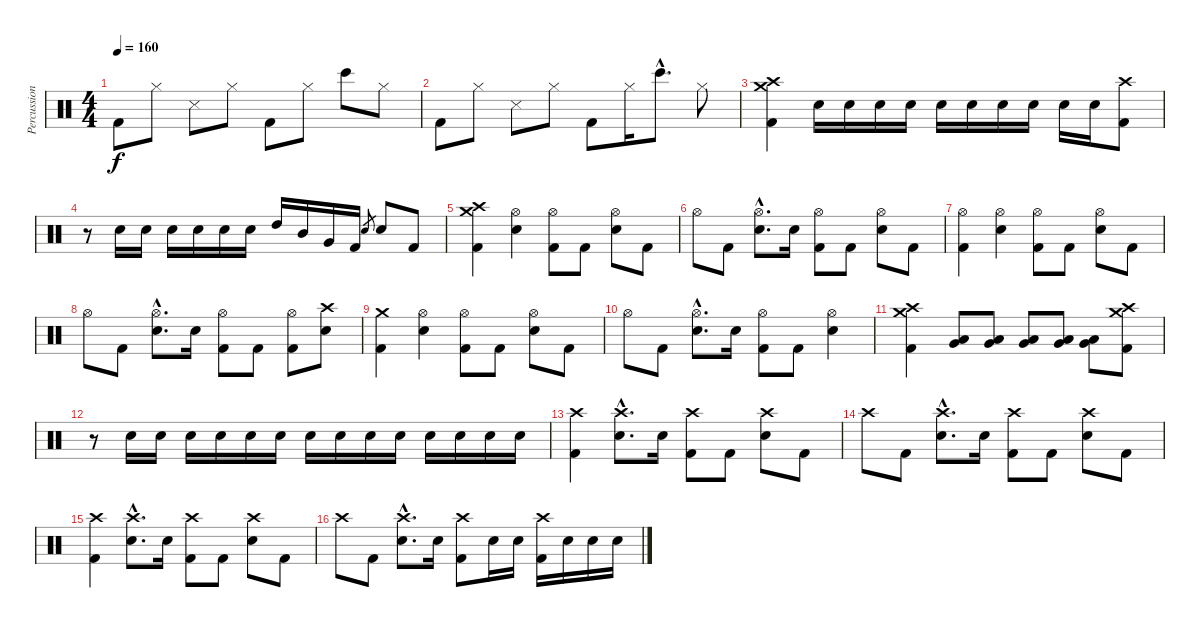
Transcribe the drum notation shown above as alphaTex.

\track ("Percussion" "Percussion") {instrument percussion}
\staff {score}
\articulation defaults
\ts (4 4)
\tempo 160
\clef neutral
\ks c "Kick (hit) 2".8{dy f} "Hi-Hat (closed)".8 "Snare (side stick) 3".8 "Hi-Hat (closed)".8 "Kick (hit) 2".8 "Hi-Hat (closed)".8 "Bongo High (hit)".8 "Hi-Hat (closed)".8
|
"Kick (hit) 2".8 "Hi-Hat (closed)".8 "Snare (side stick) 3".8 "Hi-Hat (closed)".8 "Kick (hit) 2".8 "Hi-Hat (closed)".16 "Bongo High (hit)"{hac}.8{d} "Hi-Hat (closed)".8 |
("Crash high (hit)" "Crash medium (hit)" "Kick (hit) 2").4 "Electric Snare (hit)".16 "Electric Snare (hit)".16 "Electric Snare (hit)".16 "Electric Snare (hit)".16 "Electric Snare (hit)".16 "Electric Snare (hit)".16 "Electric Snare (hit)".16 "Electric Snare (hit)".16 "Electric Snare (hit)".16 "Electric Snare (hit)".16 ("Crash high (hit)" "Kick (hit) 2").8 |
r.8 "Electric Snare (hit)".16 "Electric Snare (hit)".16 "Electric Snare (hit)".16 "Electric Snare (hit)".16 "Electric Snare (hit)".16 "Electric Snare (hit)".16 "High Tom (hit)".16 "Mid Tom (hit)".16 "Very Low Tom (hit)".16 "Kick (hit) 2".16 "Electric Snare (hit)".8{gr} "Electric Snare (hit)".8 "Kick (hit) 2".8 |
("Crash high (hit)" "Crash medium (hit)" "Kick (hit) 2").4 ("Hi-Hat (open)" "Electric Snare (hit)").4 ("Hi-Hat (open)" "Kick (hit) 2").8 "Kick (hit) 2".8 ("Hi-Hat (open)" "Electric Snare (hit)").8 "Kick (hit) 2".8 |
"Hi-Hat (open)".8 "Kick (hit) 2".8 ("Hi-Hat (open)"{hac} "Electric Snare (hit)"{hac}).8{d} "Electric Snare (hit)".16 ("Hi-Hat (open)" "Kick (hit) 2").8 "Kick (hit) 2".8 ("Hi-Hat (open)" "Electric Snare (hit)").8 "Kick (hit) 2".8 |
("Hi-Hat (open)" "Kick (hit) 2").4 ("Hi-Hat (open)" "Electric Snare (hit)").4 ("Hi-Hat (open)" "Kick (hit) 2").8 "Kick (hit) 2".8 ("Hi-Hat (open)" "Electric Snare (hit)").8 "Kick (hit) 2".8 |
"Hi-Hat (open)".8 "Kick (hit) 2".8 ("Hi-Hat (open)"{hac} "Electric Snare (hit)"{hac}).8{d} "Electric Snare (hit)".16 ("Hi-Hat (open)" "Kick (hit) 2").8 "Kick (hit) 2".8 ("Hi-Hat (open)" "Kick (hit) 2").8 ("Crash high (hit)" "Electric Snare (hit)").8 |
("Crash medium (hit)" "Kick (hit) 2").4 ("Hi-Hat (open)" "Electric Snare (hit)").4 ("Hi-Hat (open)" "Kick (hit) 2").8 "Kick (hit) 2".8 ("Hi-Hat (open)" "Electric Snare (hit)").8 "Kick (hit) 2".8 |
"Hi-Hat (open)".8 "Kick (hit) 2".8 ("Hi-Hat (open)"{hac} "Electric Snare (hit)"{hac}).8{d} "Electric Snare (hit)".16 ("Hi-Hat (open)" "Kick (hit) 2").8 "Kick (hit) 2".8 ("Hi-Hat (open)" "Electric Snare (hit)").4 |
("Crash high (hit)" "Crash medium (hit)" "Kick (hit) 2").4 ("Very Low Tom (hit)" "Low Floor Tom (hit)").8 ("Very Low Tom (hit)" "Low Floor Tom (hit)").8 ("Very Low Tom (hit)" "Low Floor Tom (hit)").8 ("Very Low Tom (hit)" "Low Floor Tom (hit)").8 ("Very Low Tom (hit)" "Low Floor Tom (hit)").8 ("Crash high (hit)" "Crash medium (hit)" "Kick (hit) 2").8 |
r.8 "Electric Snare (hit)".16 "Electric Snare (hit)".16 "Electric Snare (hit)".16 "Electric Snare (hit)".16 "Electric Snare (hit)".16 "Electric Snare (hit)".16 "Electric Snare (hit)".16 "Electric Snare (hit)".16 "Electric Snare (hit)".16 "Electric Snare (hit)".16 "Electric Snare (hit)".16 "Electric Snare (hit)".16 "Electric Snare (hit)".16 "Electric Snare (hit)".16 |
("Crash high (hit)" "Kick (hit) 2").4 ("Crash high (hit)"{hac} "Electric Snare (hit)"{hac}).8{d} "Electric Snare (hit)".16 ("Crash high (hit)" "Kick (hit) 2").8 "Kick (hit) 2".8 ("Crash high (hit)" "Electric Snare (hit)").8 "Kick (hit) 2".8 |
"Crash high (hit)".8 "Kick (hit) 2".8 ("Crash high (hit)"{hac} "Electric Snare (hit)"{hac}).8{d} "Electric Snare (hit)".16 ("Crash high (hit)" "Kick (hit) 2").8 "Kick (hit) 2".8 ("Crash high (hit)" "Electric Snare (hit)").8 "Kick (hit) 2".8 |
("Crash high (hit)" "Kick (hit) 2").4 ("Crash high (hit)"{hac} "Electric Snare (hit)"{hac}).8{d} "Electric Snare (hit)".16 ("Crash high (hit)" "Kick (hit) 2").8 "Kick (hit) 2".8 ("Crash high (hit)" "Electric Snare (hit)").8 "Kick (hit) 2".8 |
"Crash high (hit)".8 "Kick (hit) 2".8 ("Crash high (hit)"{hac} "Electric Snare (hit)"{hac}).8{d} "Electric Snare (hit)".16 ("Crash high (hit)" "Kick (hit) 2").8 "Electric Snare (hit)".16 "Electric Snare (hit)".16 ("Crash high (hit)" "Kick (hit) 2").16 "Electric Snare (hit)".16 "Electric Snare (hit)".16 "Electric Snare (hit)".16
